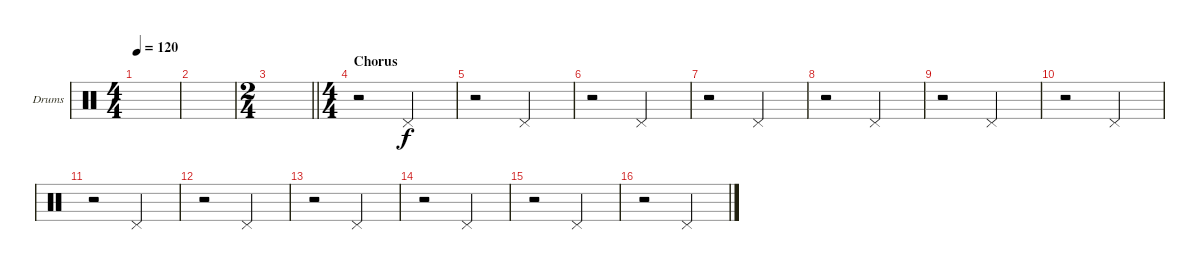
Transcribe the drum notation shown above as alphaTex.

\defaultSystemsLayout 4
\bracketExtendMode groupsimilarinstruments
\firstSystemTrackNameOrientation horizontal
\otherSystemsTrackNameOrientation horizontal
\track ("Drumkit" "Drums") {instrument percussion}
\staff {score}
\articulation defaults
\ts (4 4)
\tempo 120
\clef neutral
\scale
0.333333
\ks aminor
|
\scale
0.333333 |
\ts (2 4)
\scale
0.391473
\barLineRight lightlight
|
\ts (4 4)
\section ("" "Chorus")
\scale
0.391473 r.2 "Pedal Hi-Hat (hit)".2 |
\scale
0.217054 r.2 "Pedal Hi-Hat (hit)".2 |
\scale
0.333333 r.2 "Pedal Hi-Hat (hit)".2 |
\scale
0.333333 r.2 "Pedal Hi-Hat (hit)".2 |
\scale
0.333333 r.2 "Pedal Hi-Hat (hit)".2 |
\scale
0.333333 r.2 "Pedal Hi-Hat (hit)".2 |
\scale
0.333333 r.2 "Pedal Hi-Hat (hit)".2 |
\scale
0.333333 r.2 "Pedal Hi-Hat (hit)".2 |
\scale
0.333333 r.2 "Pedal Hi-Hat (hit)".2 |
\scale
0.333333 r.2 "Pedal Hi-Hat (hit)".2 |
\scale
0.333333 r.2 "Pedal Hi-Hat (hit)".2 |
\scale
0.333333 r.2 "Pedal Hi-Hat (hit)".2 |
\scale
0.333333 r.2 "Pedal Hi-Hat (hit)".2
